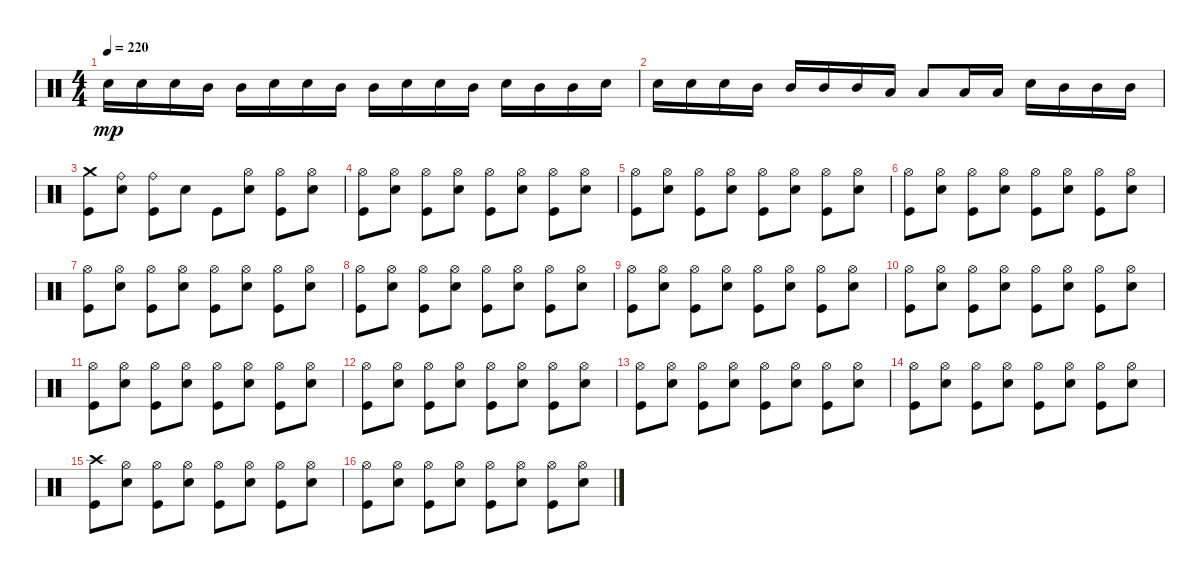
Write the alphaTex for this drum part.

\track "" {instrument percussion}
\staff {score}
\articulation defaults
\ts (4 4)
\tempo 220
\clef neutral
\ks c "Electric Snare (hit)".16{dy mp} "Electric Snare (hit)".16 "Electric Snare (hit)".16 "Mid Tom (hit)".16 "Mid Tom (hit)".16 "Electric Snare (hit)".16 "Electric Snare (hit)".16 "Mid Tom (hit)".16 "Mid Tom (hit)".16 "Electric Snare (hit)".16 "Electric Snare (hit)".16 "Mid Tom (hit)".16 "Electric Snare (hit)".16 "Mid Tom (hit)".16 "Mid Tom (hit)".16 "Electric Snare (hit)".16
|
"Electric Snare (hit)".16 "Electric Snare (hit)".16 "Electric Snare (hit)".16 "Mid Tom (hit)".16 "Mid Tom (hit)".16 "Mid Tom (hit)".16 "Mid Tom (hit)".16 "Low Tom (hit)".16 "Low Tom (hit)".8 "Low Tom (hit)".16 "Low Tom (hit)".16 "Electric Snare (hit)".16 "Mid Tom (hit)".16 "Mid Tom (hit)".16 "Mid Tom (hit)".16 |
("Kick (hit)" "Crash medium (hit)").8 ("Electric Snare (hit)" "Ride (bell)").8 ("Kick (hit)" "Ride (bell)").8 "Electric Snare (hit)".8 "Kick (hit)".8 ("Electric Snare (hit)" "Hi-Hat (open)").8 ("Kick (hit)" "Hi-Hat (open)").8 ("Electric Snare (hit)" "Hi-Hat (open)").8 |
("Kick (hit)" "Hi-Hat (open)").8 ("Electric Snare (hit)" "Hi-Hat (open)").8 ("Kick (hit)" "Hi-Hat (open)").8 ("Electric Snare (hit)" "Hi-Hat (open)").8 ("Kick (hit)" "Hi-Hat (open)").8 ("Electric Snare (hit)" "Hi-Hat (open)").8 ("Kick (hit)" "Hi-Hat (open)").8 ("Electric Snare (hit)" "Hi-Hat (open)").8 |
("Kick (hit)" "Hi-Hat (open)").8 ("Electric Snare (hit)" "Hi-Hat (open)").8 ("Kick (hit)" "Hi-Hat (open)").8 ("Electric Snare (hit)" "Hi-Hat (open)").8 ("Kick (hit)" "Hi-Hat (open)").8 ("Electric Snare (hit)" "Hi-Hat (open)").8 ("Kick (hit)" "Hi-Hat (open)").8 ("Electric Snare (hit)" "Hi-Hat (open)").8 |
("Kick (hit)" "Hi-Hat (open)").8 ("Electric Snare (hit)" "Hi-Hat (open)").8 ("Kick (hit)" "Hi-Hat (open)").8 ("Electric Snare (hit)" "Hi-Hat (open)").8 ("Kick (hit)" "Hi-Hat (open)").8 ("Electric Snare (hit)" "Hi-Hat (open)").8 ("Kick (hit)" "Hi-Hat (open)").8 ("Electric Snare (hit)" "Hi-Hat (open)").8 |
("Kick (hit)" "Hi-Hat (open)").8 ("Electric Snare (hit)" "Hi-Hat (open)").8 ("Kick (hit)" "Hi-Hat (open)").8 ("Electric Snare (hit)" "Hi-Hat (open)").8 ("Kick (hit)" "Hi-Hat (open)").8 ("Electric Snare (hit)" "Hi-Hat (open)").8 ("Kick (hit)" "Hi-Hat (open)").8 ("Electric Snare (hit)" "Hi-Hat (open)").8 |
("Kick (hit)" "Hi-Hat (open)").8 ("Electric Snare (hit)" "Hi-Hat (open)").8 ("Kick (hit)" "Hi-Hat (open)").8 ("Electric Snare (hit)" "Hi-Hat (open)").8 ("Kick (hit)" "Hi-Hat (open)").8 ("Electric Snare (hit)" "Hi-Hat (open)").8 ("Kick (hit)" "Hi-Hat (open)").8 ("Electric Snare (hit)" "Hi-Hat (open)").8 |
("Kick (hit)" "Hi-Hat (open)").8 ("Electric Snare (hit)" "Hi-Hat (open)").8 ("Kick (hit)" "Hi-Hat (open)").8 ("Electric Snare (hit)" "Hi-Hat (open)").8 ("Kick (hit)" "Hi-Hat (open)").8 ("Electric Snare (hit)" "Hi-Hat (open)").8 ("Kick (hit)" "Hi-Hat (open)").8 ("Electric Snare (hit)" "Hi-Hat (open)").8 |
("Kick (hit)" "Hi-Hat (open)").8 ("Electric Snare (hit)" "Hi-Hat (open)").8 ("Kick (hit)" "Hi-Hat (open)").8 ("Electric Snare (hit)" "Hi-Hat (open)").8 ("Kick (hit)" "Hi-Hat (open)").8 ("Electric Snare (hit)" "Hi-Hat (open)").8 ("Kick (hit)" "Hi-Hat (open)").8 ("Electric Snare (hit)" "Hi-Hat (open)").8 |
("Kick (hit)" "Hi-Hat (open)").8 ("Electric Snare (hit)" "Hi-Hat (open)").8 ("Kick (hit)" "Hi-Hat (open)").8 ("Electric Snare (hit)" "Hi-Hat (open)").8 ("Kick (hit)" "Hi-Hat (open)").8 ("Electric Snare (hit)" "Hi-Hat (open)").8 ("Kick (hit)" "Hi-Hat (open)").8 ("Electric Snare (hit)" "Hi-Hat (open)").8 |
("Kick (hit)" "Hi-Hat (open)").8 ("Electric Snare (hit)" "Hi-Hat (open)").8 ("Kick (hit)" "Hi-Hat (open)").8 ("Electric Snare (hit)" "Hi-Hat (open)").8 ("Kick (hit)" "Hi-Hat (open)").8 ("Electric Snare (hit)" "Hi-Hat (open)").8 ("Kick (hit)" "Hi-Hat (open)").8 ("Electric Snare (hit)" "Hi-Hat (open)").8 |
("Kick (hit)" "Hi-Hat (open)").8 ("Electric Snare (hit)" "Hi-Hat (open)").8 ("Kick (hit)" "Hi-Hat (open)").8 ("Electric Snare (hit)" "Hi-Hat (open)").8 ("Kick (hit)" "Hi-Hat (open)").8 ("Electric Snare (hit)" "Hi-Hat (open)").8 ("Kick (hit)" "Hi-Hat (open)").8 ("Electric Snare (hit)" "Hi-Hat (open)").8 |
("Kick (hit)" "Hi-Hat (open)").8 ("Electric Snare (hit)" "Hi-Hat (open)").8 ("Kick (hit)" "Hi-Hat (open)").8 ("Electric Snare (hit)" "Hi-Hat (open)").8 ("Kick (hit)" "Hi-Hat (open)").8 ("Electric Snare (hit)" "Hi-Hat (open)").8 ("Kick (hit)" "Hi-Hat (open)").8 ("Electric Snare (hit)" "Hi-Hat (open)").8 |
("Kick (hit)" "Crash high (hit)").8 ("Electric Snare (hit)" "Hi-Hat (open)").8 ("Kick (hit)" "Hi-Hat (open)").8 ("Electric Snare (hit)" "Hi-Hat (open)").8 ("Kick (hit)" "Hi-Hat (open)").8 ("Electric Snare (hit)" "Hi-Hat (open)").8 ("Kick (hit)" "Hi-Hat (open)").8 ("Electric Snare (hit)" "Hi-Hat (open)").8 |
("Kick (hit)" "Hi-Hat (open)").8 ("Electric Snare (hit)" "Hi-Hat (open)").8 ("Kick (hit)" "Hi-Hat (open)").8 ("Electric Snare (hit)" "Hi-Hat (open)").8 ("Kick (hit)" "Hi-Hat (open)").8 ("Electric Snare (hit)" "Hi-Hat (open)").8 ("Kick (hit)" "Hi-Hat (open)").8 ("Electric Snare (hit)" "Hi-Hat (open)").8
